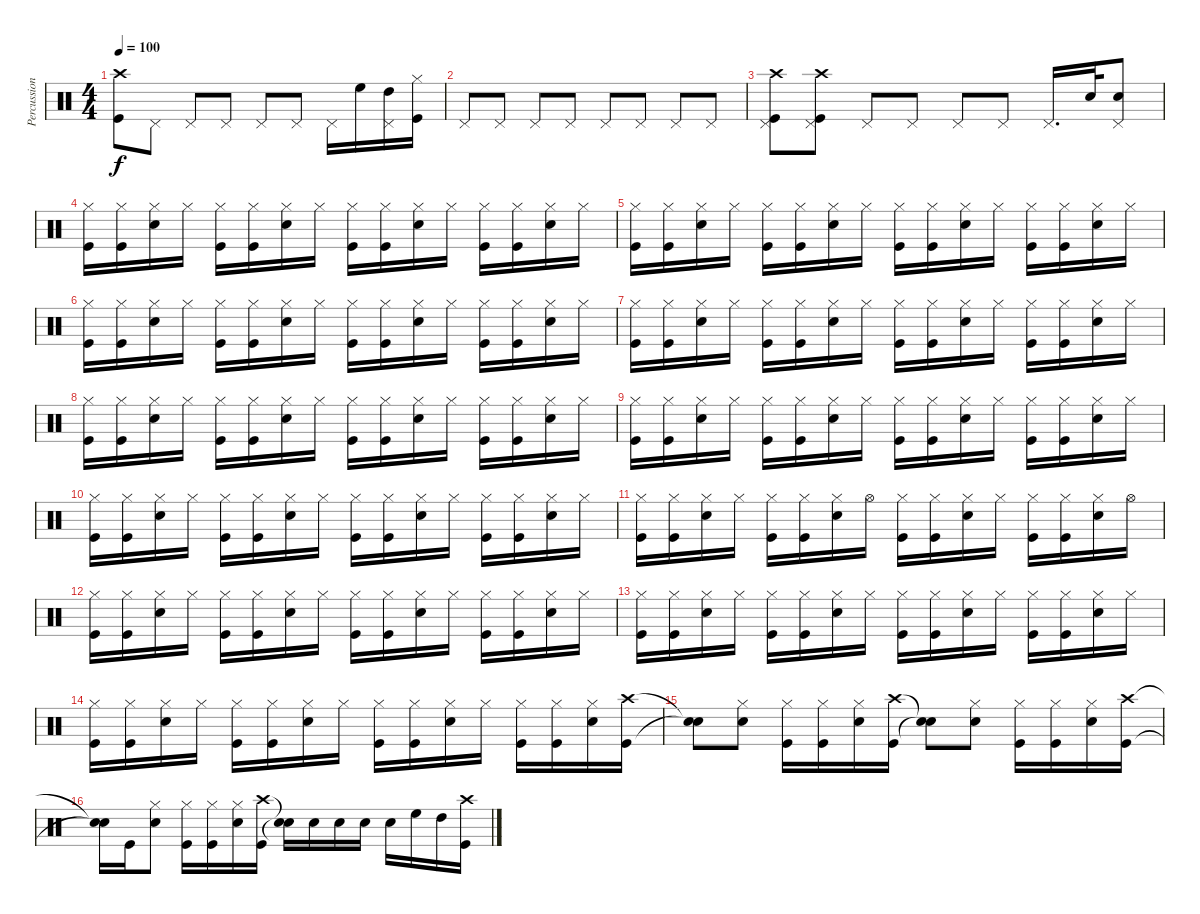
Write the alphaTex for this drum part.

\track ("Percussions" "Percussion") {instrument percussion}
\staff {score}
\articulation defaults
\ts (4 4)
\tempo 100
\clef neutral
\ks c
("Crash high (hit)" "Kick (hit)").8{dy f} "Pedal Hi-Hat (hit)".8 "Pedal Hi-Hat (hit)".8 "Pedal Hi-Hat (hit)".8 "Pedal Hi-Hat (hit)".8 "Pedal Hi-Hat (hit)".8 "Pedal Hi-Hat (hit)".16 "High Floor Tom (hit)".16 ("Pedal Hi-Hat (hit)" "High Tom (hit)").16 ("Hi-Hat (closed)" "Kick (hit)").16 |
"Pedal Hi-Hat (hit)".8 "Pedal Hi-Hat (hit)".8 "Pedal Hi-Hat (hit)".8 "Pedal Hi-Hat (hit)".8 "Pedal Hi-Hat (hit)".8 "Pedal Hi-Hat (hit)".8 "Pedal Hi-Hat (hit)".8 "Pedal Hi-Hat (hit)".8 |
("Crash high (hit)" "Pedal Hi-Hat (hit)" "Kick (hit)").8 ("Crash high (hit)" "Pedal Hi-Hat (hit)" "Kick (hit)").8 "Pedal Hi-Hat (hit)".8 "Pedal Hi-Hat (hit)".8 "Pedal Hi-Hat (hit)".8 "Pedal Hi-Hat (hit)".8 "Pedal Hi-Hat (hit)".16{d} "Snare (hit) 2".32 ("Pedal Hi-Hat (hit)" "Snare (hit) 2").8 |
("Hi-Hat (closed)" "Kick (hit)").16 ("Hi-Hat (closed)" "Kick (hit)").16 ("Hi-Hat (closed)" "Snare (hit) 2").16 "Hi-Hat (closed)".16 ("Hi-Hat (closed)" "Kick (hit)").16 ("Hi-Hat (closed)" "Kick (hit)").16 ("Hi-Hat (closed)" "Snare (hit) 2").16 "Hi-Hat (closed)".16 ("Hi-Hat (closed)" "Kick (hit)").16 ("Hi-Hat (closed)" "Kick (hit)").16 ("Hi-Hat (closed)" "Snare (hit) 2").16 "Hi-Hat (closed)".16 ("Hi-Hat (closed)" "Kick (hit)").16 ("Hi-Hat (closed)" "Kick (hit)").16 ("Hi-Hat (closed)" "Snare (hit) 2").16 "Hi-Hat (closed)".16 |
("Hi-Hat (closed)" "Kick (hit)").16 ("Hi-Hat (closed)" "Kick (hit)").16 ("Hi-Hat (closed)" "Snare (hit) 2").16 "Hi-Hat (closed)".16 ("Hi-Hat (closed)" "Kick (hit)").16 ("Hi-Hat (closed)" "Kick (hit)").16 ("Hi-Hat (closed)" "Snare (hit) 2").16 "Hi-Hat (closed)".16 ("Hi-Hat (closed)" "Kick (hit)").16 ("Hi-Hat (closed)" "Kick (hit)").16 ("Hi-Hat (closed)" "Snare (hit) 2").16 "Hi-Hat (closed)".16 ("Hi-Hat (closed)" "Kick (hit)").16 ("Hi-Hat (closed)" "Kick (hit)").16 ("Hi-Hat (closed)" "Snare (hit) 2").16 "Hi-Hat (closed)".16 |
("Hi-Hat (closed)" "Kick (hit)").16 ("Hi-Hat (closed)" "Kick (hit)").16 ("Hi-Hat (closed)" "Snare (hit) 2").16 "Hi-Hat (closed)".16 ("Hi-Hat (closed)" "Kick (hit)").16 ("Hi-Hat (closed)" "Kick (hit)").16 ("Hi-Hat (closed)" "Snare (hit) 2").16 "Hi-Hat (closed)".16 ("Hi-Hat (closed)" "Kick (hit)").16 ("Hi-Hat (closed)" "Kick (hit)").16 ("Hi-Hat (closed)" "Snare (hit) 2").16 "Hi-Hat (closed)".16 ("Hi-Hat (closed)" "Kick (hit)").16 ("Hi-Hat (closed)" "Kick (hit)").16 ("Hi-Hat (closed)" "Snare (hit) 2").16 "Hi-Hat (closed)".16 |
("Hi-Hat (closed)" "Kick (hit)").16 ("Hi-Hat (closed)" "Kick (hit)").16 ("Hi-Hat (closed)" "Snare (hit) 2").16 "Hi-Hat (closed)".16 ("Hi-Hat (closed)" "Kick (hit)").16 ("Hi-Hat (closed)" "Kick (hit)").16 ("Hi-Hat (closed)" "Snare (hit) 2").16 "Hi-Hat (closed)".16 ("Hi-Hat (closed)" "Kick (hit)").16 ("Hi-Hat (closed)" "Kick (hit)").16 ("Hi-Hat (closed)" "Snare (hit) 2").16 "Hi-Hat (closed)".16 ("Hi-Hat (closed)" "Kick (hit)").16 ("Hi-Hat (closed)" "Kick (hit)").16 ("Hi-Hat (closed)" "Snare (hit) 2").16 "Hi-Hat (closed)".16 |
("Hi-Hat (closed)" "Kick (hit)").16 ("Hi-Hat (closed)" "Kick (hit)").16 ("Hi-Hat (closed)" "Snare (hit) 2").16 "Hi-Hat (closed)".16 ("Hi-Hat (closed)" "Kick (hit)").16 ("Hi-Hat (closed)" "Kick (hit)").16 ("Hi-Hat (closed)" "Snare (hit) 2").16 "Hi-Hat (closed)".16 ("Hi-Hat (closed)" "Kick (hit)").16 ("Hi-Hat (closed)" "Kick (hit)").16 ("Hi-Hat (closed)" "Snare (hit) 2").16 "Hi-Hat (closed)".16 ("Hi-Hat (closed)" "Kick (hit)").16 ("Hi-Hat (closed)" "Kick (hit)").16 ("Hi-Hat (closed)" "Snare (hit) 2").16 "Hi-Hat (closed)".16 |
("Hi-Hat (closed)" "Kick (hit)").16 ("Hi-Hat (closed)" "Kick (hit)").16 ("Hi-Hat (closed)" "Snare (hit) 2").16 "Hi-Hat (closed)".16 ("Hi-Hat (closed)" "Kick (hit)").16 ("Hi-Hat (closed)" "Kick (hit)").16 ("Hi-Hat (closed)" "Snare (hit) 2").16 "Hi-Hat (closed)".16 ("Hi-Hat (closed)" "Kick (hit)").16 ("Hi-Hat (closed)" "Kick (hit)").16 ("Hi-Hat (closed)" "Snare (hit) 2").16 "Hi-Hat (closed)".16 ("Hi-Hat (closed)" "Kick (hit)").16 ("Hi-Hat (closed)" "Kick (hit)").16 ("Hi-Hat (closed)" "Snare (hit) 2").16 "Hi-Hat (closed)".16 |
("Hi-Hat (closed)" "Kick (hit)").16 ("Hi-Hat (closed)" "Kick (hit)").16 ("Hi-Hat (closed)" "Snare (hit) 2").16 "Hi-Hat (closed)".16 ("Hi-Hat (closed)" "Kick (hit)").16 ("Hi-Hat (closed)" "Kick (hit)").16 ("Hi-Hat (closed)" "Snare (hit) 2").16 "Hi-Hat (closed)".16 ("Hi-Hat (closed)" "Kick (hit)").16 ("Hi-Hat (closed)" "Kick (hit)").16 ("Hi-Hat (closed)" "Snare (hit) 2").16 "Hi-Hat (closed)".16 ("Hi-Hat (closed)" "Kick (hit)").16 ("Hi-Hat (closed)" "Kick (hit)").16 ("Hi-Hat (closed)" "Snare (hit) 2").16 "Hi-Hat (closed)".16 |
("Hi-Hat (closed)" "Kick (hit)").16 ("Hi-Hat (closed)" "Kick (hit)").16 ("Hi-Hat (closed)" "Snare (hit) 2").16 "Hi-Hat (closed)".16 ("Hi-Hat (closed)" "Kick (hit)").16 ("Hi-Hat (closed)" "Kick (hit)").16 ("Hi-Hat (closed)" "Snare (hit) 2").16 "Hi-Hat (open)".16 ("Hi-Hat (closed)" "Kick (hit)").16 ("Hi-Hat (closed)" "Kick (hit)").16 ("Hi-Hat (closed)" "Snare (hit) 2").16 "Hi-Hat (closed)".16 ("Hi-Hat (closed)" "Kick (hit)").16 ("Hi-Hat (closed)" "Kick (hit)").16 ("Hi-Hat (closed)" "Snare (hit) 2").16 "Hi-Hat (open)".16 |
("Hi-Hat (closed)" "Kick (hit)").16 ("Hi-Hat (closed)" "Kick (hit)").16 ("Hi-Hat (closed)" "Snare (hit) 2").16 "Hi-Hat (closed)".16 ("Hi-Hat (closed)" "Kick (hit)").16 ("Hi-Hat (closed)" "Kick (hit)").16 ("Hi-Hat (closed)" "Snare (hit) 2").16 "Hi-Hat (closed)".16 ("Hi-Hat (closed)" "Kick (hit)").16 ("Hi-Hat (closed)" "Kick (hit)").16 ("Hi-Hat (closed)" "Snare (hit) 2").16 "Hi-Hat (closed)".16 ("Hi-Hat (closed)" "Kick (hit)").16 ("Hi-Hat (closed)" "Kick (hit)").16 ("Hi-Hat (closed)" "Snare (hit) 2").16 "Hi-Hat (closed)".16 |
("Hi-Hat (closed)" "Kick (hit)").16 ("Hi-Hat (closed)" "Kick (hit)").16 ("Hi-Hat (closed)" "Snare (hit) 2").16 "Hi-Hat (closed)".16 ("Hi-Hat (closed)" "Kick (hit)").16 ("Hi-Hat (closed)" "Kick (hit)").16 ("Hi-Hat (closed)" "Snare (hit) 2").16 "Hi-Hat (closed)".16 ("Hi-Hat (closed)" "Kick (hit)").16 ("Hi-Hat (closed)" "Kick (hit)").16 ("Hi-Hat (closed)" "Snare (hit) 2").16 "Hi-Hat (closed)".16 ("Hi-Hat (closed)" "Kick (hit)").16 ("Hi-Hat (closed)" "Kick (hit)").16 ("Hi-Hat (closed)" "Snare (hit) 2").16 "Hi-Hat (closed)".16 |
("Hi-Hat (closed)" "Kick (hit)").16 ("Hi-Hat (closed)" "Kick (hit)").16 ("Hi-Hat (closed)" "Snare (hit) 2").16 "Hi-Hat (closed)".16 ("Hi-Hat (closed)" "Kick (hit)").16 ("Hi-Hat (closed)" "Kick (hit)").16 ("Hi-Hat (closed)" "Snare (hit) 2").16 "Hi-Hat (closed)".16 ("Hi-Hat (closed)" "Kick (hit)").16 ("Hi-Hat (closed)" "Kick (hit)").16 ("Hi-Hat (closed)" "Snare (hit) 2").16 "Hi-Hat (closed)".16 ("Hi-Hat (closed)" "Kick (hit)").16 ("Hi-Hat (closed)" "Kick (hit)").16 ("Hi-Hat (closed)" "Snare (hit) 2").16 ("Crash high (hit)" "Kick (hit)").16 |
("Snare (hit)"{t} "Snare (hit)"{t}).8 ("Hi-Hat (closed)" "Snare (hit) 2").8 ("Hi-Hat (closed)" "Kick (hit)").16 ("Hi-Hat (closed)" "Kick (hit)").16 ("Hi-Hat (closed)" "Snare (hit) 2").16 ("Crash high (hit)" "Kick (hit)").16 ("Snare (hit)"{t} "Snare (hit)"{t}).8 ("Hi-Hat (closed)" "Snare (hit) 2").8 ("Hi-Hat (closed)" "Kick (hit)").16 ("Hi-Hat (closed)" "Kick (hit)").16 ("Hi-Hat (closed)" "Snare (hit) 2").16 ("Crash high (hit)" "Kick (hit)").16 |
("Snare (hit)"{t} "Snare (hit)"{t}).16 "Kick (hit)".16 ("Hi-Hat (closed)" "Snare (hit) 2").8 ("Hi-Hat (closed)" "Kick (hit)").16 ("Hi-Hat (closed)" "Kick (hit)").16 ("Hi-Hat (closed)" "Snare (hit) 2").16 ("Crash high (hit)" "Kick (hit)").16 ("Snare (hit)"{t} "Snare (hit)"{t}).16 "Snare (hit) 2".16 "Snare (hit) 2".16 "Snare (hit) 2".16 "Snare (hit) 2".16 "High Floor Tom (hit)".16 "High Tom (hit)".16 ("Crash high (hit)" "Kick (hit)").16
